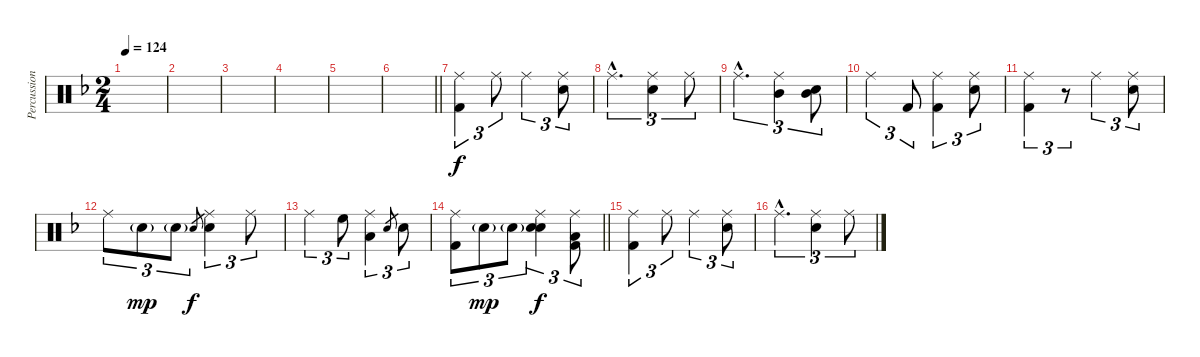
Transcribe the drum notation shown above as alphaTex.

\track ("Percussions" "Percussion") {instrument percussion}
\staff {score}
\articulation defaults
\ts (2 4)
\tempo 124
\clef neutral
\ks dminor
|
|
|
|
|
\barLineRight lightlight
|
("Ride (middle)" "Kick (hit) 2").4{tu (3 2) dy f volume 12} "Ride (middle)".8{tu (3 2)} "Ride (middle)".4{tu (3 2)} ("Ride (middle)" "Snare (hit) 2").8{tu (3 2)} |
"Ride (middle)"{hac}.4{d tu (3 2)} ("Ride (middle)" "Snare (hit) 2").4{tu (3 2)} "Ride (middle)".8{tu (3 2)} |
"Ride (middle)"{hac}.4{d tu (3 2)} ("Ride (middle)" "Mid Tom (hit)").4{tu (3 2)} ("Mid Tom (hit)" "Snare (hit) 2").8{tu (3 2)} |
"Ride (middle)".4{tu (3 2)} "Kick (hit) 2".8{tu (3 2)} ("Ride (middle)" "Kick (hit) 2").4{tu (3 2)} ("Ride (middle)" "Snare (hit) 2").8{tu (3 2)} |
("Ride (middle)" "Kick (hit) 2").4{tu (3 2)} r.8{tu (3 2)} "Ride (middle)".4{tu (3 2)} ("Ride (middle)" "Snare (hit) 2").8{tu (3 2)} |
"Ride (middle)".8{tu (3 2)} "Snare (hit) 2"{g}.8{tu (3 2) dy mp} "Snare (hit) 2"{g}.8{tu (3 2)} "Snare (hit) 2".8{gr dy f} ("Ride (middle)" "Snare (hit) 2").4{tu (3 2)} "Ride (middle)".8{tu (3 2)} |
"Ride (middle)".4{tu (3 2)} "High Floor Tom (hit)".8{tu (3 2)} ("Ride (middle)" "Low Tom (hit)").4{tu (3 2)} "Snare (hit) 2".8{gr} "Snare (hit) 2".8{tu (3 2)} |
\barLineRight lightlight
("Ride (middle)" "Kick (hit) 2").8{tu (3 2)} "Snare (hit) 2"{g}.8{tu (3 2) dy mp} "Snare (hit) 2"{g}.8{tu (3 2)} ("Ride (middle)" "Snare (hit) 2" "Electric Snare (hit)").4{tu (3 2) dy f} ("Ride (middle)" "Low Tom (hit)" "Kick (hit) 2").8{tu (3 2)} |
("Ride (middle)" "Kick (hit) 2").4{tu (3 2)} "Ride (middle)".8{tu (3 2)} "Ride (middle)".4{tu (3 2)} ("Ride (middle)" "Snare (hit) 2").8{tu (3 2)} |
"Ride (middle)"{hac}.4{d tu (3 2)} ("Ride (middle)" "Snare (hit) 2").4{tu (3 2)} "Ride (middle)".8{tu (3 2)}
